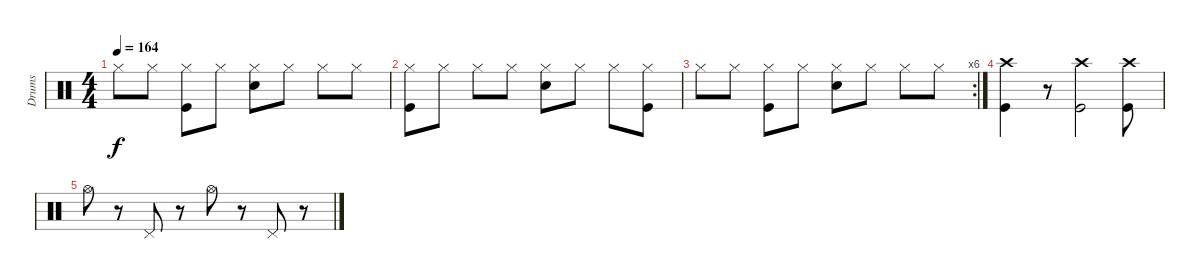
\track ("Drums" "Drums") {instrument percussion}
\staff {score}
\articulation defaults
\ts (4 4)
\tempo 164
\clef neutral
\ks c "Hi-Hat (closed)".8{dy f} "Hi-Hat (closed)".8
("Kick (hit)" "Hi-Hat (closed)").8 "Hi-Hat (closed)".8 ("Snare (hit) 2" "Hi-Hat (closed)").8 "Hi-Hat (closed)".8 "Hi-Hat (closed)".8 "Hi-Hat (closed)".8 |
("Kick (hit)" "Hi-Hat (closed)").8 "Hi-Hat (closed)".8 "Hi-Hat (closed)".8 "Hi-Hat (closed)".8 ("Snare (hit) 2" "Hi-Hat (closed)").8 "Hi-Hat (closed)".8 "Hi-Hat (closed)".8 ("Kick (hit)" "Hi-Hat (closed)").8 |
\rc 6 "Hi-Hat (closed)".8 "Hi-Hat (closed)".8
("Kick (hit)" "Hi-Hat (closed)").8 "Hi-Hat (closed)".8 ("Snare (hit) 2" "Hi-Hat (closed)").8 "Hi-Hat (closed)".8 "Hi-Hat (closed)".8 "Hi-Hat (closed)".8 |
("Crash high (hit)" "Kick (hit)").4 r.8 ("Crash high (hit)" "Kick (hit)").2 ("Crash high (hit)" "Kick (hit)").8 |
"Hi-Hat (open)".8 r.8 "Pedal Hi-Hat (hit)".8 r.8 "Hi-Hat (open)".8 r.8 "Pedal Hi-Hat (hit)".8 r.8
